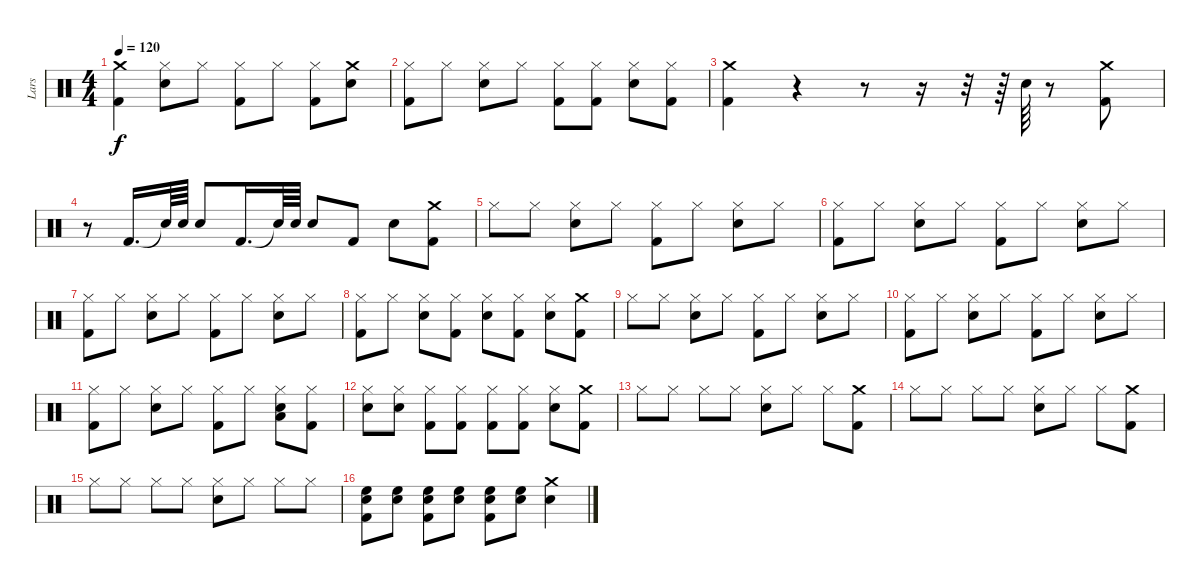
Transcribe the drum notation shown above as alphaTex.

\track ("Lars" "Lars") {instrument percussion}
\staff {score}
\articulation defaults
\ts (4 4)
\tempo 120
\clef neutral
\ks c
("Kick (hit) 2" "Crash medium (hit)").4{dy f} ("Hi-Hat (closed)" "Snare (hit) 2").8 "Hi-Hat (closed)".8 ("Kick (hit) 2" "Hi-Hat (closed)").8 "Hi-Hat (closed)".8 ("Kick (hit) 2" "Hi-Hat (closed)").8 ("Crash medium (hit)" "Snare (hit) 2").8 |
("Kick (hit) 2" "Hi-Hat (closed)").8 "Hi-Hat (closed)".8 ("Snare (hit) 2" "Hi-Hat (closed)").8 "Hi-Hat (closed)".8 ("Kick (hit) 2" "Hi-Hat (closed)").8 ("Kick (hit) 2" "Hi-Hat (closed)").8 ("Snare (hit) 2" "Hi-Hat (closed)").8 ("Kick (hit) 2" "Hi-Hat (closed)").8 |
("Kick (hit) 2" "Crash medium (hit)").4 r.4 r.8 r.16 r.32 r.64 "Snare (hit) 2".64 r.8 ("Kick (hit) 2" "Crash medium (hit)").8 |
r.8 "Kick (hit) 2".16{d} "Snare (hit)"{t}.64 "Snare (hit) 2".64 "Snare (hit) 2".8 "Kick (hit) 2".16{d} "Snare (hit)"{t}.64 "Snare (hit) 2".64 "Snare (hit) 2".8 "Kick (hit) 2".8 "Snare (hit) 2".8 ("Crash medium (hit)" "Kick (hit) 2").8 |
"Hi-Hat (closed)".8 "Hi-Hat (closed)".8 ("Snare (hit) 2" "Hi-Hat (closed)").8 "Hi-Hat (closed)".8 ("Kick (hit) 2" "Hi-Hat (closed)").8 "Hi-Hat (closed)".8 ("Snare (hit) 2" "Hi-Hat (closed)").8 "Hi-Hat (closed)".8 |
("Kick (hit) 2" "Hi-Hat (closed)").8 "Hi-Hat (closed)".8 ("Snare (hit) 2" "Hi-Hat (closed)").8 "Hi-Hat (closed)".8 ("Kick (hit) 2" "Hi-Hat (closed)").8 "Hi-Hat (closed)".8 ("Snare (hit) 2" "Hi-Hat (closed)").8 "Hi-Hat (closed)".8 |
("Kick (hit) 2" "Hi-Hat (closed)").8 "Hi-Hat (closed)".8 ("Snare (hit) 2" "Hi-Hat (closed)").8 "Hi-Hat (closed)".8 ("Kick (hit) 2" "Hi-Hat (closed)").8 "Hi-Hat (closed)".8 ("Snare (hit) 2" "Hi-Hat (closed)").8 "Hi-Hat (closed)".8 |
("Hi-Hat (closed)" "Kick (hit) 2").8 "Hi-Hat (closed)".8 ("Snare (hit) 2" "Hi-Hat (closed)").8 ("Kick (hit) 2" "Hi-Hat (closed)").8 ("Snare (hit) 2" "Hi-Hat (closed)").8 ("Hi-Hat (closed)" "Kick (hit) 2").8 ("Snare (hit) 2" "Hi-Hat (closed)").8 ("Crash medium (hit)" "Kick (hit) 2").8 |
"Hi-Hat (closed)".8 "Hi-Hat (closed)".8 ("Snare (hit) 2" "Hi-Hat (closed)").8 "Hi-Hat (closed)".8 ("Kick (hit) 2" "Hi-Hat (closed)").8 "Hi-Hat (closed)".8 ("Snare (hit) 2" "Hi-Hat (closed)").8 "Hi-Hat (closed)".8 |
("Kick (hit) 2" "Hi-Hat (closed)").8 "Hi-Hat (closed)".8 ("Snare (hit) 2" "Hi-Hat (closed)").8 "Hi-Hat (closed)".8 ("Kick (hit) 2" "Hi-Hat (closed)").8 "Hi-Hat (closed)".8 ("Snare (hit) 2" "Hi-Hat (closed)").8 "Hi-Hat (closed)".8 |
("Kick (hit) 2" "Hi-Hat (closed)").8 "Hi-Hat (closed)".8 ("Snare (hit) 2" "Hi-Hat (closed)").8 "Hi-Hat (closed)".8 ("Kick (hit) 2" "Hi-Hat (closed)").8 "Hi-Hat (closed)".8 ("Low Tom (hit)" "Snare (hit) 2" "Hi-Hat (closed)").8 ("Kick (hit) 2" "Hi-Hat (closed)").8 |
("Snare (hit) 2" "Hi-Hat (closed)").8 ("Snare (hit) 2" "Hi-Hat (closed)").8 ("Kick (hit) 2" "Hi-Hat (closed)").8 ("Kick (hit) 2" "Hi-Hat (closed)").8 ("Hi-Hat (closed)" "Kick (hit) 2").8 ("Hi-Hat (closed)" "Kick (hit) 2").8 ("Snare (hit) 2" "Hi-Hat (closed)").8 ("Crash medium (hit)" "Kick (hit) 2").8 |
"Hi-Hat (closed)".8 "Hi-Hat (closed)".8 "Hi-Hat (closed)".8 "Hi-Hat (closed)".8 ("Snare (hit) 2" "Hi-Hat (closed)").8 "Hi-Hat (closed)".8 "Hi-Hat (closed)".8 ("Kick (hit) 2" "Crash medium (hit)").8 |
"Hi-Hat (closed)".8 "Hi-Hat (closed)".8 "Hi-Hat (closed)".8 "Hi-Hat (closed)".8 ("Snare (hit) 2" "Hi-Hat (closed)").8 "Hi-Hat (closed)".8 "Hi-Hat (closed)".8 ("Kick (hit) 2" "Crash medium (hit)").8 |
"Hi-Hat (closed)".8 "Hi-Hat (closed)".8 "Hi-Hat (closed)".8 "Hi-Hat (closed)".8 ("Snare (hit) 2" "Hi-Hat (closed)").8 "Hi-Hat (closed)".8 "Hi-Hat (closed)".8 "Hi-Hat (closed)".8 |
("Kick (hit) 2" "High Floor Tom (hit)" "Snare (hit) 2").8 ("High Floor Tom (hit)" "Snare (hit) 2").8 ("Kick (hit) 2" "High Floor Tom (hit)" "Snare (hit) 2").8 ("High Floor Tom (hit)" "Snare (hit) 2").8 ("Kick (hit) 2" "High Floor Tom (hit)" "Snare (hit) 2").8 ("High Floor Tom (hit)" "Snare (hit) 2").8 ("Crash medium (hit)" "Snare (hit) 2").4
